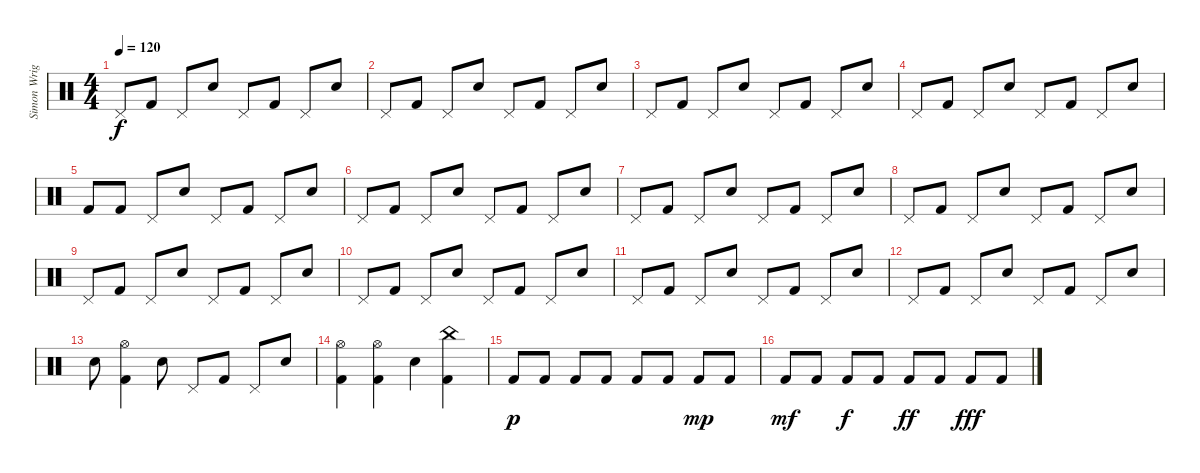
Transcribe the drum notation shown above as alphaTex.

\track ("Simon Wright (i think)" "Simon Wrig") {instrument percussion}
\staff {score}
\articulation defaults
\ts (4 4)
\tempo 120
\clef neutral
\ks c "Pedal Hi-Hat (hit)".8{dy f} "Kick (hit) 2".8 "Pedal Hi-Hat (hit)".8 "Snare (hit) 2".8 "Pedal Hi-Hat (hit)".8 "Kick (hit) 2".8 "Pedal Hi-Hat (hit)".8 "Snare (hit) 2".8
|
"Pedal Hi-Hat (hit)".8 "Kick (hit) 2".8 "Pedal Hi-Hat (hit)".8 "Snare (hit) 2".8 "Pedal Hi-Hat (hit)".8 "Kick (hit) 2".8 "Pedal Hi-Hat (hit)".8 "Snare (hit) 2".8 |
"Pedal Hi-Hat (hit)".8 "Kick (hit) 2".8 "Pedal Hi-Hat (hit)".8 "Snare (hit) 2".8 "Pedal Hi-Hat (hit)".8 "Kick (hit) 2".8 "Pedal Hi-Hat (hit)".8 "Snare (hit) 2".8 |
"Pedal Hi-Hat (hit)".8 "Kick (hit) 2".8 "Pedal Hi-Hat (hit)".8 "Snare (hit) 2".8 "Pedal Hi-Hat (hit)".8 "Kick (hit) 2".8 "Pedal Hi-Hat (hit)".8 "Snare (hit) 2".8 |
"Kick (hit) 2".8 "Kick (hit) 2".8 "Pedal Hi-Hat (hit)".8 "Snare (hit) 2".8 "Pedal Hi-Hat (hit)".8 "Kick (hit) 2".8 "Pedal Hi-Hat (hit)".8 "Snare (hit) 2".8 |
"Pedal Hi-Hat (hit)".8 "Kick (hit) 2".8 "Pedal Hi-Hat (hit)".8 "Snare (hit) 2".8 "Pedal Hi-Hat (hit)".8 "Kick (hit) 2".8 "Pedal Hi-Hat (hit)".8 "Snare (hit) 2".8 |
"Pedal Hi-Hat (hit)".8 "Kick (hit) 2".8 "Pedal Hi-Hat (hit)".8 "Snare (hit) 2".8 "Pedal Hi-Hat (hit)".8 "Kick (hit) 2".8 "Pedal Hi-Hat (hit)".8 "Snare (hit) 2".8 |
"Pedal Hi-Hat (hit)".8 "Kick (hit) 2".8 "Pedal Hi-Hat (hit)".8 "Snare (hit) 2".8 "Pedal Hi-Hat (hit)".8 "Kick (hit) 2".8 "Pedal Hi-Hat (hit)".8 "Snare (hit) 2".8 |
"Pedal Hi-Hat (hit)".8 "Kick (hit) 2".8 "Pedal Hi-Hat (hit)".8 "Snare (hit) 2".8 "Pedal Hi-Hat (hit)".8 "Kick (hit) 2".8 "Pedal Hi-Hat (hit)".8 "Snare (hit) 2".8 |
"Pedal Hi-Hat (hit)".8 "Kick (hit) 2".8 "Pedal Hi-Hat (hit)".8 "Snare (hit) 2".8 "Pedal Hi-Hat (hit)".8 "Kick (hit) 2".8 "Pedal Hi-Hat (hit)".8 "Snare (hit) 2".8 |
"Pedal Hi-Hat (hit)".8 "Kick (hit) 2".8 "Pedal Hi-Hat (hit)".8 "Snare (hit) 2".8 "Pedal Hi-Hat (hit)".8 "Kick (hit) 2".8 "Pedal Hi-Hat (hit)".8 "Snare (hit) 2".8 |
"Pedal Hi-Hat (hit)".8 "Kick (hit) 2".8 "Pedal Hi-Hat (hit)".8 "Snare (hit) 2".8 "Pedal Hi-Hat (hit)".8 "Kick (hit) 2".8 "Pedal Hi-Hat (hit)".8 "Snare (hit) 2".8 |
"Snare (hit) 2".8 ("Kick (hit) 2" "Hi-Hat (open)").4 "Snare (hit) 2".8 "Pedal Hi-Hat (hit)".8 "Kick (hit) 2".8 "Pedal Hi-Hat (hit)".8 "Snare (hit) 2".8 |
("Kick (hit) 2" "Hi-Hat (open)").4 ("Kick (hit) 2" "Hi-Hat (open)").4 "Snare (hit) 2".4 ("Kick (hit) 2" "China (hit)").4 |
"Kick (hit) 2".8{dy p} "Kick (hit) 2".8 "Kick (hit) 2".8 "Kick (hit) 2".8 "Kick (hit) 2".8 "Kick (hit) 2".8 "Kick (hit) 2".8{dy mp} "Kick (hit) 2".8 |
"Kick (hit) 2".8{dy mf} "Kick (hit) 2".8 "Kick (hit) 2".8{dy f} "Kick (hit) 2".8 "Kick (hit) 2".8{dy ff} "Kick (hit) 2".8 "Kick (hit) 2".8{dy fff} "Kick (hit) 2".8
